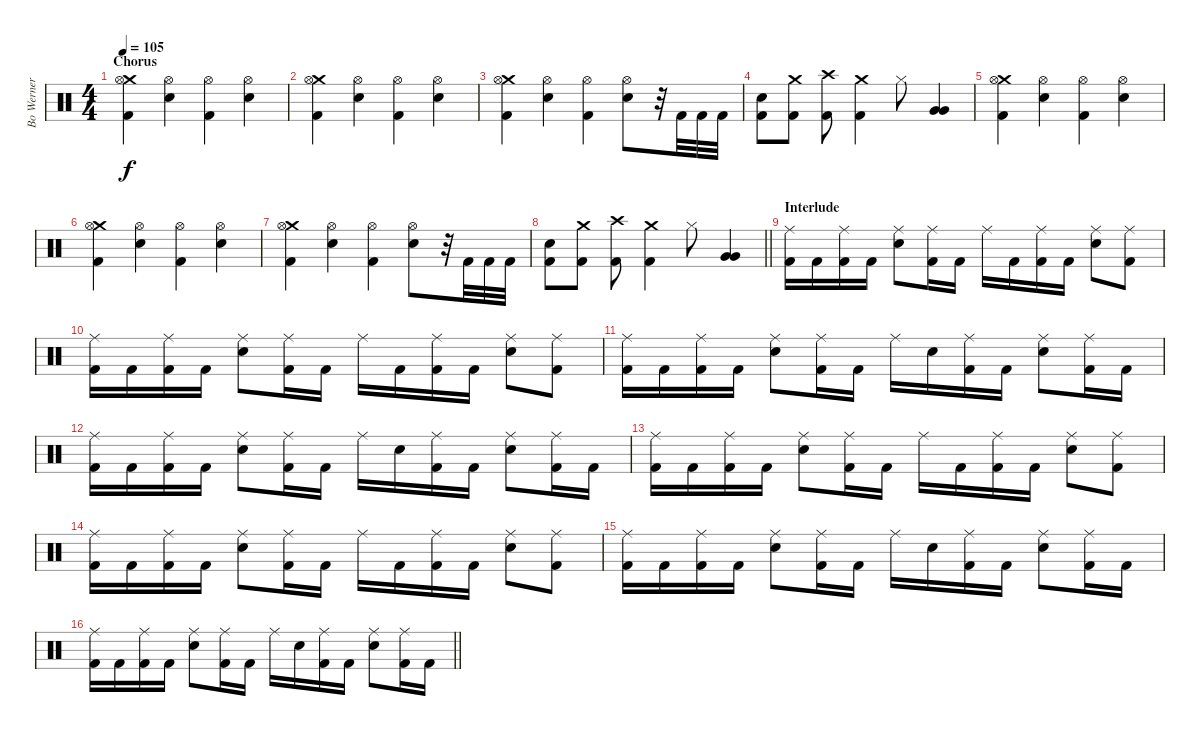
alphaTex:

\track ("Bo Werner" "Bo Werner") {instrument percussion}
\staff {score}
\articulation defaults
\ts (4 4)
\section ("" "Chorus")
\tempo 105
\clef neutral
\ks c
("Crash medium (hit)" "Hi-Hat (open)" "Kick (hit) 2").4{dy f} ("Hi-Hat (open)" "Snare (hit) 2").4 ("Hi-Hat (open)" "Kick (hit) 2").4 ("Hi-Hat (open)" "Snare (hit) 2").4 |
("Crash medium (hit)" "Hi-Hat (open)" "Kick (hit) 2").4 ("Hi-Hat (open)" "Snare (hit) 2").4 ("Hi-Hat (open)" "Kick (hit) 2").4 ("Hi-Hat (open)" "Snare (hit) 2").4 |
("Crash medium (hit)" "Hi-Hat (open)" "Kick (hit) 2").4 ("Hi-Hat (open)" "Snare (hit) 2").4 ("Hi-Hat (open)" "Kick (hit) 2").4 ("Hi-Hat (open)" "Snare (hit) 2").8 r.32 "Kick (hit) 2".32 "Kick (hit) 2".32 "Kick (hit) 2".32 |
("Snare (hit) 2" "Kick (hit) 2").8 ("Crash medium (hit)" "Kick (hit) 2").8 ("Crash high (hit)" "Kick (hit) 2").8 ("Crash medium (hit)" "Kick (hit) 2").4 "Hi-Hat (closed)".8 ("Very Low Tom (hit)" "Very Low Tom (hit)").4 |
("Crash medium (hit)" "Hi-Hat (open)" "Kick (hit) 2").4 ("Hi-Hat (open)" "Snare (hit) 2").4 ("Hi-Hat (open)" "Kick (hit) 2").4 ("Hi-Hat (open)" "Snare (hit) 2").4 |
("Crash medium (hit)" "Hi-Hat (open)" "Kick (hit) 2").4 ("Hi-Hat (open)" "Snare (hit) 2").4 ("Hi-Hat (open)" "Kick (hit) 2").4 ("Hi-Hat (open)" "Snare (hit) 2").4 |
("Crash medium (hit)" "Hi-Hat (open)" "Kick (hit) 2").4 ("Hi-Hat (open)" "Snare (hit) 2").4 ("Hi-Hat (open)" "Kick (hit) 2").4 ("Hi-Hat (open)" "Snare (hit) 2").8 r.32 "Kick (hit) 2".32 "Kick (hit) 2".32 "Kick (hit) 2".32 |
\barLineRight lightlight
("Snare (hit) 2" "Kick (hit) 2").8 ("Crash medium (hit)" "Kick (hit) 2").8 ("Crash high (hit)" "Kick (hit) 2").8 ("Crash medium (hit)" "Kick (hit) 2").4 "Hi-Hat (closed)".8 ("Very Low Tom (hit)" "Very Low Tom (hit)").4 |
\section ("" "Interlude")
("Ride (middle)" "Kick (hit) 2").16 "Kick (hit) 2".16 ("Ride (middle)" "Kick (hit) 2").16 "Kick (hit) 2".16 ("Ride (middle)" "Snare (hit) 2").8 ("Ride (middle)" "Kick (hit) 2").16 "Kick (hit) 2".16 "Ride (middle)".16 "Kick (hit) 2".16 ("Ride (middle)" "Kick (hit) 2").16 "Kick (hit) 2".16 ("Ride (middle)" "Snare (hit) 2").8 ("Ride (middle)" "Kick (hit) 2").8 |
("Ride (middle)" "Kick (hit) 2").16 "Kick (hit) 2".16 ("Ride (middle)" "Kick (hit) 2").16 "Kick (hit) 2".16 ("Ride (middle)" "Snare (hit) 2").8 ("Ride (middle)" "Kick (hit) 2").16 "Kick (hit) 2".16 "Ride (middle)".16 "Kick (hit) 2".16 ("Ride (middle)" "Kick (hit) 2").16 "Kick (hit) 2".16 ("Ride (middle)" "Snare (hit) 2").8 ("Ride (middle)" "Kick (hit) 2").8 |
("Ride (middle)" "Kick (hit) 2").16 "Kick (hit) 2".16 ("Ride (middle)" "Kick (hit) 2").16 "Kick (hit) 2".16 ("Ride (middle)" "Snare (hit) 2").8 ("Ride (middle)" "Kick (hit) 2").16 "Kick (hit) 2".16 "Ride (middle)".16 "Snare (hit) 2".16 ("Ride (middle)" "Kick (hit) 2").16 "Kick (hit) 2".16 ("Ride (middle)" "Snare (hit) 2").8 ("Ride (middle)" "Kick (hit) 2").16 "Kick (hit) 2".16 |
("Ride (middle)" "Kick (hit) 2").16 "Kick (hit) 2".16 ("Ride (middle)" "Kick (hit) 2").16 "Kick (hit) 2".16 ("Ride (middle)" "Snare (hit) 2").8 ("Ride (middle)" "Kick (hit) 2").16 "Kick (hit) 2".16 "Ride (middle)".16 "Snare (hit) 2".16 ("Ride (middle)" "Kick (hit) 2").16 "Kick (hit) 2".16 ("Ride (middle)" "Snare (hit) 2").8 ("Ride (middle)" "Kick (hit) 2").16 "Kick (hit) 2".16 |
("Ride (middle)" "Kick (hit) 2").16 "Kick (hit) 2".16 ("Ride (middle)" "Kick (hit) 2").16 "Kick (hit) 2".16 ("Ride (middle)" "Snare (hit) 2").8 ("Ride (middle)" "Kick (hit) 2").16 "Kick (hit) 2".16 "Ride (middle)".16 "Kick (hit) 2".16 ("Ride (middle)" "Kick (hit) 2").16 "Kick (hit) 2".16 ("Ride (middle)" "Snare (hit) 2").8 ("Ride (middle)" "Kick (hit) 2").8 |
("Ride (middle)" "Kick (hit) 2").16 "Kick (hit) 2".16 ("Ride (middle)" "Kick (hit) 2").16 "Kick (hit) 2".16 ("Ride (middle)" "Snare (hit) 2").8 ("Ride (middle)" "Kick (hit) 2").16 "Kick (hit) 2".16 "Ride (middle)".16 "Kick (hit) 2".16 ("Ride (middle)" "Kick (hit) 2").16 "Kick (hit) 2".16 ("Ride (middle)" "Snare (hit) 2").8 ("Ride (middle)" "Kick (hit) 2").8 |
("Ride (middle)" "Kick (hit) 2").16 "Kick (hit) 2".16 ("Ride (middle)" "Kick (hit) 2").16 "Kick (hit) 2".16 ("Ride (middle)" "Snare (hit) 2").8 ("Ride (middle)" "Kick (hit) 2").16 "Kick (hit) 2".16 "Ride (middle)".16 "Snare (hit) 2".16 ("Ride (middle)" "Kick (hit) 2").16 "Kick (hit) 2".16 ("Ride (middle)" "Snare (hit) 2").8 ("Ride (middle)" "Kick (hit) 2").16 "Kick (hit) 2".16 |
\barLineRight lightlight
("Ride (middle)" "Kick (hit) 2").16 "Kick (hit) 2".16 ("Ride (middle)" "Kick (hit) 2").16 "Kick (hit) 2".16 ("Ride (middle)" "Snare (hit) 2").8 ("Ride (middle)" "Kick (hit) 2").16 "Kick (hit) 2".16 "Ride (middle)".16 "Snare (hit) 2".16 ("Ride (middle)" "Kick (hit) 2").16 "Kick (hit) 2".16 ("Ride (middle)" "Snare (hit) 2").8 ("Ride (middle)" "Kick (hit) 2").16 "Kick (hit) 2".16
